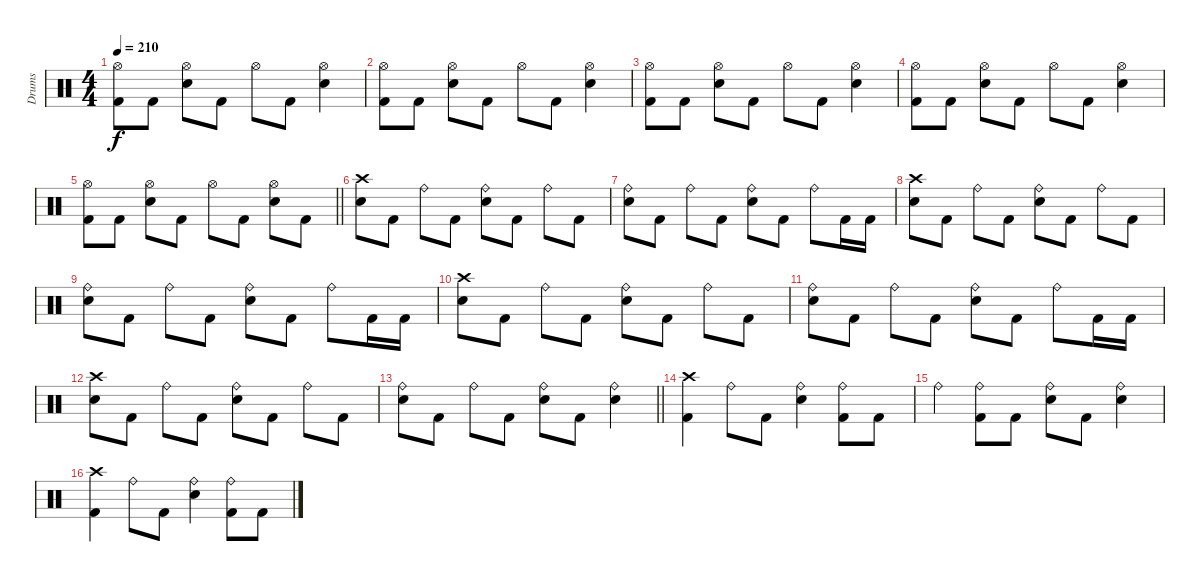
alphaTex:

\track ("Drums" "Drums") {instrument percussion}
\staff {score}
\articulation defaults
\ts (4 4)
\tempo 210
\clef neutral
\ks c
("Hi-Hat (open)" "Kick (hit) 2").8{dy f} "Kick (hit) 2".8 ("Hi-Hat (open)" "Snare (hit) 2").8 "Kick (hit) 2".8 "Hi-Hat (open)".8 "Kick (hit) 2".8 ("Hi-Hat (open)" "Snare (hit) 2").4 |
("Hi-Hat (open)" "Kick (hit) 2").8 "Kick (hit) 2".8 ("Hi-Hat (open)" "Snare (hit) 2").8 "Kick (hit) 2".8 "Hi-Hat (open)".8 "Kick (hit) 2".8 ("Hi-Hat (open)" "Snare (hit) 2").4 |
("Hi-Hat (open)" "Kick (hit) 2").8 "Kick (hit) 2".8 ("Hi-Hat (open)" "Snare (hit) 2").8 "Kick (hit) 2".8 "Hi-Hat (open)".8 "Kick (hit) 2".8 ("Hi-Hat (open)" "Snare (hit) 2").4 |
("Hi-Hat (open)" "Kick (hit) 2").8 "Kick (hit) 2".8 ("Hi-Hat (open)" "Snare (hit) 2").8 "Kick (hit) 2".8 "Hi-Hat (open)".8 "Kick (hit) 2".8 ("Hi-Hat (open)" "Snare (hit) 2").4 |
\barLineRight lightlight
("Hi-Hat (open)" "Kick (hit) 2").8 "Kick (hit) 2".8 ("Hi-Hat (open)" "Snare (hit) 2").8 "Kick (hit) 2".8 "Hi-Hat (open)".8 "Kick (hit) 2".8 ("Hi-Hat (open)" "Snare (hit) 2").8 "Kick (hit) 2".8 |
("Crash high (hit)" "Snare (hit) 2").8 "Kick (hit) 2".8 "Ride (bell)".8 "Kick (hit) 2".8 ("Ride (bell)" "Snare (hit) 2").8 "Kick (hit) 2".8 "Ride (bell)".8 "Kick (hit) 2".8 |
("Ride (bell)" "Snare (hit) 2").8 "Kick (hit) 2".8 "Ride (bell)".8 "Kick (hit) 2".8 ("Ride (bell)" "Snare (hit) 2").8 "Kick (hit) 2".8 "Ride (bell)".8 "Kick (hit) 2".16 "Kick (hit) 2".16 |
("Crash high (hit)" "Snare (hit) 2").8 "Kick (hit) 2".8 "Ride (bell)".8 "Kick (hit) 2".8 ("Ride (bell)" "Snare (hit) 2").8 "Kick (hit) 2".8 "Ride (bell)".8 "Kick (hit) 2".8 |
("Ride (bell)" "Snare (hit) 2").8 "Kick (hit) 2".8 "Ride (bell)".8 "Kick (hit) 2".8 ("Ride (bell)" "Snare (hit) 2").8 "Kick (hit) 2".8 "Ride (bell)".8 "Kick (hit) 2".16 "Kick (hit) 2".16 |
("Crash high (hit)" "Snare (hit) 2").8 "Kick (hit) 2".8 "Ride (bell)".8 "Kick (hit) 2".8 ("Ride (bell)" "Snare (hit) 2").8 "Kick (hit) 2".8 "Ride (bell)".8 "Kick (hit) 2".8 |
("Ride (bell)" "Snare (hit) 2").8 "Kick (hit) 2".8 "Ride (bell)".8 "Kick (hit) 2".8 ("Ride (bell)" "Snare (hit) 2").8 "Kick (hit) 2".8 "Ride (bell)".8 "Kick (hit) 2".16 "Kick (hit) 2".16 |
("Crash high (hit)" "Snare (hit) 2").8 "Kick (hit) 2".8 "Ride (bell)".8 "Kick (hit) 2".8 ("Ride (bell)" "Snare (hit) 2").8 "Kick (hit) 2".8 "Ride (bell)".8 "Kick (hit) 2".8 |
\barLineRight lightlight
("Ride (bell)" "Snare (hit) 2").8 "Kick (hit) 2".8 "Ride (bell)".8 "Kick (hit) 2".8 ("Ride (bell)" "Snare (hit) 2").8 "Kick (hit) 2".8 ("Ride (bell)" "Snare (hit) 2").4 |
("Crash high (hit)" "Kick (hit) 2").4 "Ride (bell)".8 "Kick (hit) 2".8 ("Ride (bell)" "Snare (hit) 2").4 ("Ride (bell)" "Kick (hit) 2").8 "Kick (hit) 2".8 |
"Ride (bell)".4 ("Ride (bell)" "Kick (hit) 2").8 "Kick (hit) 2".8 ("Ride (bell)" "Snare (hit) 2").8 "Kick (hit) 2".8 ("Ride (bell)" "Snare (hit) 2").4 |
("Crash high (hit)" "Kick (hit) 2").4 "Ride (bell)".8 "Kick (hit) 2".8 ("Ride (bell)" "Snare (hit) 2").4 ("Ride (bell)" "Kick (hit) 2").8 "Kick (hit) 2".8
